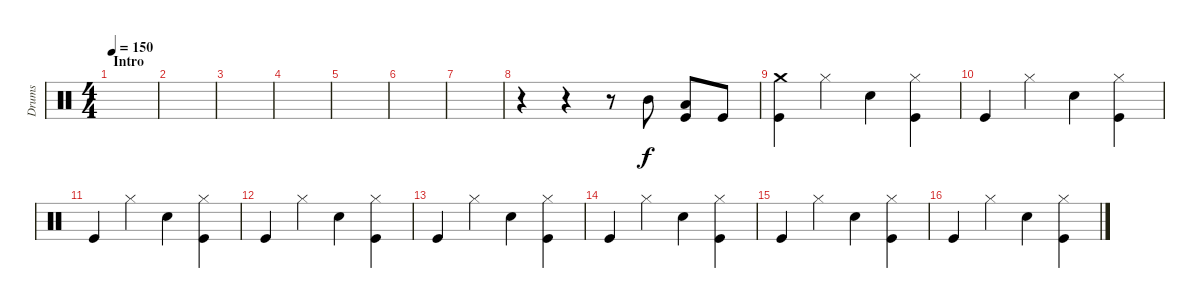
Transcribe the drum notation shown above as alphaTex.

\track ("Drums" "Drums") {instrument percussion}
\staff {score}
\articulation defaults
\ts (4 4)
\section ("" "Intro")
\tempo 150
\clef neutral
\ks c
|
|
|
|
|
|
|
r.4 r.4 r.8 "Mid Tom (hit)".8 ("Low Tom (hit)" "Kick (hit)").8 "Kick (hit)".8 |
("Crash medium (hit)" "Kick (hit)").4 "Hi-Hat (closed)".4 "Electric Snare (hit)".4 ("Hi-Hat (closed)" "Kick (hit)").4 |
"Kick (hit)".4 "Hi-Hat (closed)".4 "Electric Snare (hit)".4 ("Hi-Hat (closed)" "Kick (hit)").4 |
"Kick (hit)".4 "Hi-Hat (closed)".4 "Electric Snare (hit)".4 ("Hi-Hat (closed)" "Kick (hit)").4 |
"Kick (hit)".4 "Hi-Hat (closed)".4 "Electric Snare (hit)".4 ("Hi-Hat (closed)" "Kick (hit)").4 |
"Kick (hit)".4 "Hi-Hat (closed)".4 "Electric Snare (hit)".4 ("Hi-Hat (closed)" "Kick (hit)").4 |
"Kick (hit)".4 "Hi-Hat (closed)".4 "Electric Snare (hit)".4 ("Hi-Hat (closed)" "Kick (hit)").4 |
"Kick (hit)".4 "Hi-Hat (closed)".4 "Electric Snare (hit)".4 ("Hi-Hat (closed)" "Kick (hit)").4 |
"Kick (hit)".4 "Hi-Hat (closed)".4 "Electric Snare (hit)".4 ("Hi-Hat (closed)" "Kick (hit)").4
